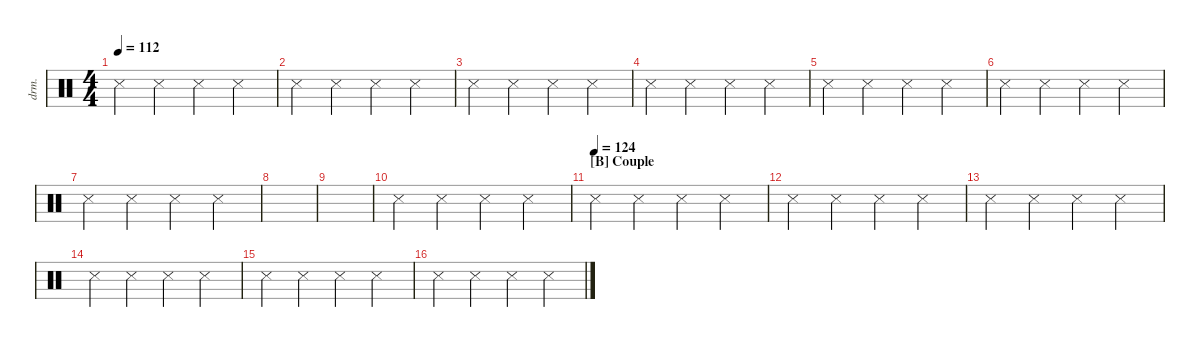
\defaultSystemsLayout 4
\hideDynamics
\bracketExtendMode nobrackets
\otherSystemsTrackNameOrientation horizontal
\track ("Drumkit" "drm.") {instrument percussion}
\staff {score}
\articulation defaults
\ts (4 4)
\tempo 112
\clef neutral
\ks c "Metronome (hit)".4{dy mf} "Metronome (hit)".4 "Metronome (hit)".4 "Metronome (hit)".4
|
"Metronome (hit)".4 "Metronome (hit)".4 "Metronome (hit)".4 "Metronome (hit)".4 |
"Metronome (hit)".4 "Metronome (hit)".4 "Metronome (hit)".4 "Metronome (hit)".4 |
"Metronome (hit)".4 "Metronome (hit)".4 "Metronome (hit)".4 "Metronome (hit)".4 |
"Metronome (hit)".4 "Metronome (hit)".4 "Metronome (hit)".4 "Metronome (hit)".4 |
"Metronome (hit)".4 "Metronome (hit)".4 "Metronome (hit)".4 "Metronome (hit)".4 |
"Metronome (hit)".4 "Metronome (hit)".4 "Metronome (hit)".4 "Metronome (hit)".4 |
|
|
"Metronome (hit)".4 "Metronome (hit)".4 "Metronome (hit)".4 "Metronome (hit)".4 |
\section ("B" "Couple")
\tempo (124)
"Metronome (hit)".4 "Metronome (hit)".4 "Metronome (hit)".4 "Metronome (hit)".4 |
"Metronome (hit)".4 "Metronome (hit)".4 "Metronome (hit)".4 "Metronome (hit)".4 |
"Metronome (hit)".4 "Metronome (hit)".4 "Metronome (hit)".4 "Metronome (hit)".4 |
"Metronome (hit)".4 "Metronome (hit)".4 "Metronome (hit)".4 "Metronome (hit)".4 |
"Metronome (hit)".4 "Metronome (hit)".4 "Metronome (hit)".4 "Metronome (hit)".4 |
"Metronome (hit)".4 "Metronome (hit)".4 "Metronome (hit)".4 "Metronome (hit)".4
